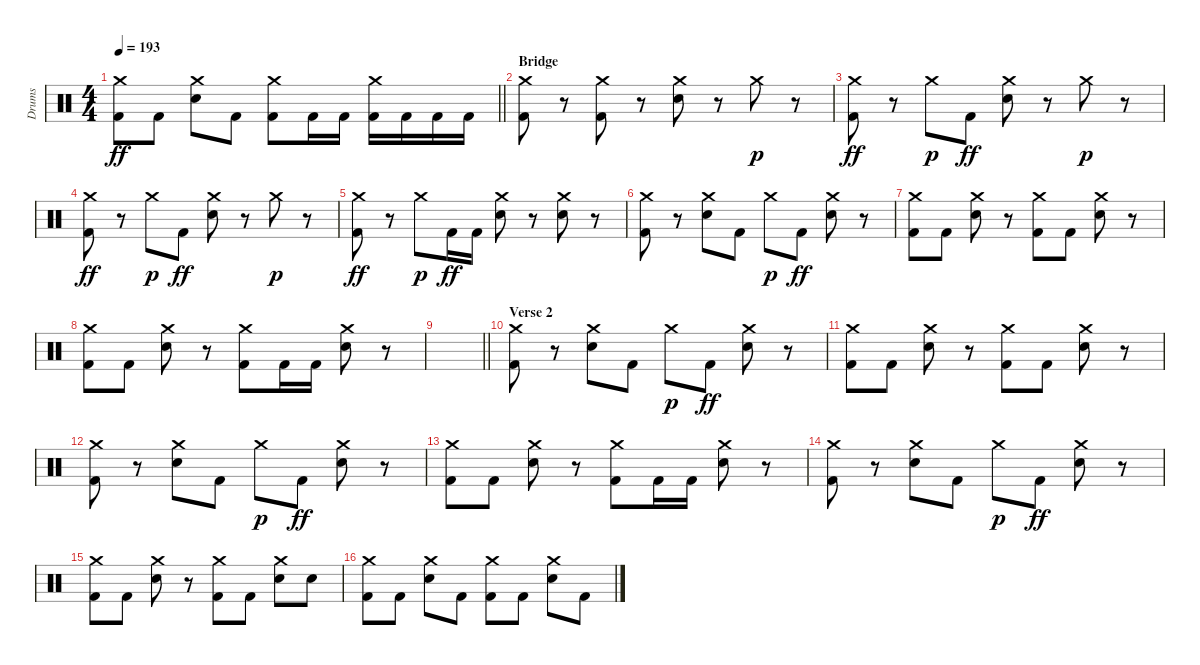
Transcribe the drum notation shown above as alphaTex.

\track ("Drums" "Drums") {instrument percussion}
\staff {score}
\articulation defaults
\ts (4 4)
\tempo 193
\clef neutral
\barLineRight lightlight
\ks c
("Crash medium (hit)" "Kick (hit) 2").8{dy ff} "Kick (hit) 2".8 ("Crash medium (hit)" "Snare (hit) 2").8 "Kick (hit) 2".8 ("Crash medium (hit)" "Kick (hit) 2").8 "Kick (hit) 2".16 "Kick (hit) 2".16 ("Crash medium (hit)" "Kick (hit) 2").16 "Kick (hit) 2".16 "Kick (hit) 2".16 "Kick (hit) 2".16 |
\section ("" "Bridge")
("Crash medium (hit)" "Kick (hit) 2").8 r.8 ("Crash medium (hit)" "Kick (hit) 2").8 r.8 ("Crash medium (hit)" "Snare (hit) 2").8 r.8 "Crash medium (hit)".8{dy p} r.8 |
("Crash medium (hit)" "Kick (hit) 2").8{dy ff} r.8 "Crash medium (hit)".8{dy p} "Kick (hit) 2".8{dy ff} ("Crash medium (hit)" "Snare (hit) 2").8 r.8 "Crash medium (hit)".8{dy p} r.8 |
("Crash medium (hit)" "Kick (hit) 2").8{dy ff} r.8 "Crash medium (hit)".8{dy p} "Kick (hit) 2".8{dy ff} ("Crash medium (hit)" "Snare (hit) 2").8 r.8 "Crash medium (hit)".8{dy p} r.8 |
("Crash medium (hit)" "Kick (hit) 2").8{dy ff} r.8 "Crash medium (hit)".8{dy p} "Kick (hit) 2".16{dy ff} "Kick (hit) 2".16 ("Crash medium (hit)" "Snare (hit) 2").8 r.8 ("Crash medium (hit)" "Snare (hit) 2").8 r.8 |
("Crash medium (hit)" "Kick (hit) 2").8 r.8 ("Crash medium (hit)" "Snare (hit) 2").8 "Kick (hit) 2".8 "Crash medium (hit)".8{dy p} "Kick (hit) 2".8{dy ff} ("Crash medium (hit)" "Snare (hit) 2").8 r.8 |
("Crash medium (hit)" "Kick (hit) 2").8 "Kick (hit) 2".8 ("Crash medium (hit)" "Snare (hit) 2").8 r.8 ("Crash medium (hit)" "Kick (hit) 2").8 "Kick (hit) 2".8 ("Crash medium (hit)" "Snare (hit) 2").8 r.8 |
("Crash medium (hit)" "Kick (hit) 2").8 "Kick (hit) 2".8 ("Crash medium (hit)" "Snare (hit) 2").8 r.8 ("Crash medium (hit)" "Kick (hit) 2").8 "Kick (hit) 2".16 "Kick (hit) 2".16 ("Crash medium (hit)" "Snare (hit) 2").8 r.8 |
\barLineRight lightlight
|
\section ("" "Verse 2")
("Crash medium (hit)" "Kick (hit) 2").8 r.8 ("Crash medium (hit)" "Snare (hit) 2").8 "Kick (hit) 2".8 "Crash medium (hit)".8{dy p} "Kick (hit) 2".8{dy ff} ("Crash medium (hit)" "Snare (hit) 2").8 r.8 |
("Crash medium (hit)" "Kick (hit) 2").8 "Kick (hit) 2".8 ("Crash medium (hit)" "Snare (hit) 2").8 r.8 ("Crash medium (hit)" "Kick (hit) 2").8 "Kick (hit) 2".8 ("Crash medium (hit)" "Snare (hit) 2").8 r.8 |
("Crash medium (hit)" "Kick (hit) 2").8 r.8 ("Crash medium (hit)" "Snare (hit) 2").8 "Kick (hit) 2".8 "Crash medium (hit)".8{dy p} "Kick (hit) 2".8{dy ff} ("Crash medium (hit)" "Snare (hit) 2").8 r.8 |
("Crash medium (hit)" "Kick (hit) 2").8 "Kick (hit) 2".8 ("Crash medium (hit)" "Snare (hit) 2").8 r.8 ("Crash medium (hit)" "Kick (hit) 2").8 "Kick (hit) 2".16 "Kick (hit) 2".16 ("Crash medium (hit)" "Snare (hit) 2").8 r.8 |
("Crash medium (hit)" "Kick (hit) 2").8 r.8 ("Crash medium (hit)" "Snare (hit) 2").8 "Kick (hit) 2".8 "Crash medium (hit)".8{dy p} "Kick (hit) 2".8{dy ff} ("Crash medium (hit)" "Snare (hit) 2").8 r.8 |
("Crash medium (hit)" "Kick (hit) 2").8 "Kick (hit) 2".8 ("Crash medium (hit)" "Snare (hit) 2").8 r.8 ("Crash medium (hit)" "Kick (hit) 2").8 "Kick (hit) 2".8 ("Crash medium (hit)" "Snare (hit) 2").8 "Snare (hit) 2".8 |
("Crash medium (hit)" "Kick (hit) 2").8 "Kick (hit) 2".8 ("Crash medium (hit)" "Snare (hit) 2").8 "Kick (hit) 2".8 ("Crash medium (hit)" "Kick (hit) 2").8 "Kick (hit) 2".8 ("Crash medium (hit)" "Snare (hit) 2").8 "Kick (hit) 2".8
